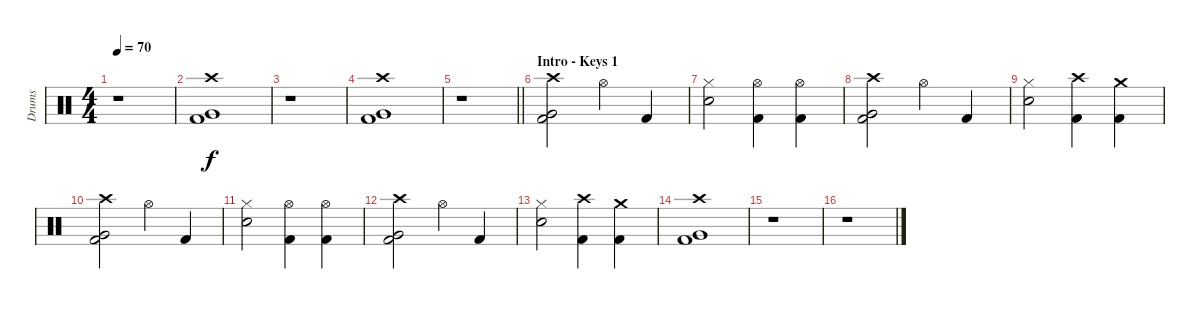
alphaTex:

\track ("Drums" "Drums") {instrument percussion}
\staff {score}
\articulation defaults
\ts (4 4)
\tempo 70
\clef neutral
\ks c
r.1{dy f} |
("Crash high (hit)" "Very Low Tom (hit)" "Kick (hit) 2").1 |
r.1 |
("Crash high (hit)" "Very Low Tom (hit)" "Kick (hit) 2").1 |
\barLineRight lightlight
r.1 |
\section ("" "Intro - Keys 1")
("Crash high (hit)" "Very Low Tom (hit)" "Kick (hit) 2").2 "Hi-Hat (open)".4 "Kick (hit) 2".4 |
("Hi-Hat (closed)" "Electric Snare (hit)").2 ("Hi-Hat (open)" "Kick (hit) 2").4 ("Hi-Hat (open)" "Kick (hit) 2").4 |
("Crash high (hit)" "Very Low Tom (hit)" "Kick (hit) 2").2 "Hi-Hat (open)".4 "Kick (hit) 2".4 |
("Hi-Hat (closed)" "Electric Snare (hit)").2 ("Crash high (hit)" "Kick (hit) 2").4 ("Crash medium (hit)" "Kick (hit) 2").4 |
("Crash high (hit)" "Very Low Tom (hit)" "Kick (hit) 2").2 "Hi-Hat (open)".4 "Kick (hit) 2".4 |
("Hi-Hat (closed)" "Electric Snare (hit)").2 ("Hi-Hat (open)" "Kick (hit) 2").4 ("Hi-Hat (open)" "Kick (hit) 2").4 |
("Crash high (hit)" "Very Low Tom (hit)" "Kick (hit) 2").2 "Hi-Hat (open)".4 "Kick (hit) 2".4 |
("Hi-Hat (closed)" "Electric Snare (hit)").2 ("Crash high (hit)" "Kick (hit) 2").4 ("Crash medium (hit)" "Kick (hit) 2").4 |
("Crash high (hit)" "Very Low Tom (hit)" "Kick (hit) 2").1 |
r.1 |
r.1
